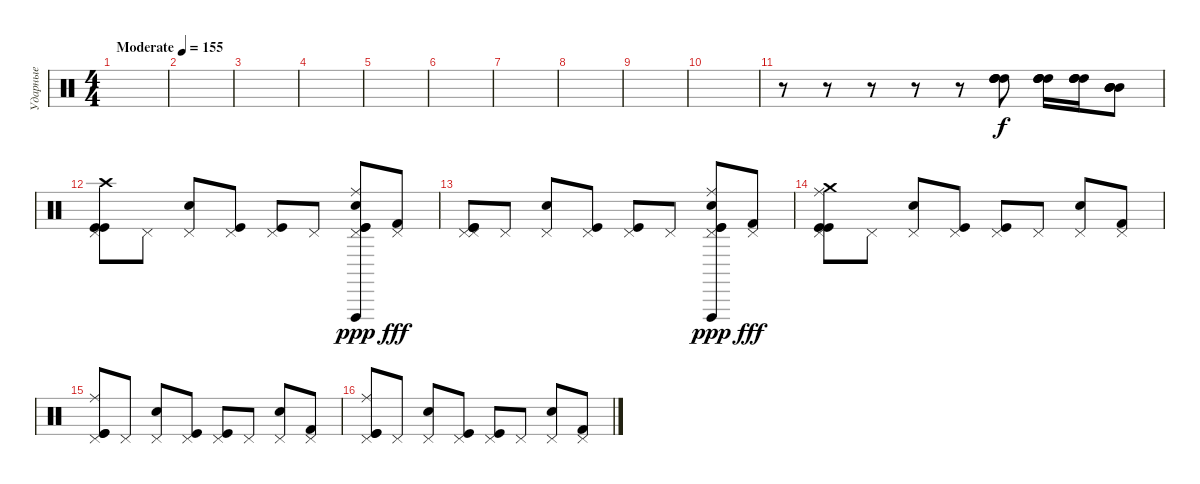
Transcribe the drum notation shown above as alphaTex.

\track ("Ударные" "Ударные") {instrument percussion}
\staff
\articulation defaults
\ts (4 4)
\tempo (155 "Moderate")
\clef neutral
\ks c
|
|
|
|
|
|
|
|
|
|
r.8 r.8 r.8 r.8 r.8 ("High Tom (hit)" "High Tom (hit)" "High Tom (hit)" "High Tom (hit)").8 ("High Tom (hit)" "High Tom (hit)" "High Tom (hit)" "High Tom (hit)").16 ("High Tom (hit)" "High Tom (hit)" "High Tom (hit)" "High Tom (hit)").16 ("Mid Tom (hit)" "Mid Tom (hit)" "Mid Tom (hit)" "Mid Tom (hit)").8 |
("Kick (hit)" "Pedal Hi-Hat (hit)" "Kick (hit)" "Crash high (hit)").8 "Pedal Hi-Hat (hit)".8 ("Pedal Hi-Hat (hit)" "Snare (hit) 2").8 ("Pedal Hi-Hat (hit)" "Kick (hit)").8 ("Pedal Hi-Hat (hit)" "Kick (hit)").8 "Pedal Hi-Hat (hit)".8 ("Kick (hit)" "Snare (hit) 2" "Pedal Hi-Hat (hit)" "Ride (middle)" "Vibraslap (hit)" "Kick (hit)").8{dy ppp} ("Kick (hit) 2" "Pedal Hi-Hat (hit)").8{dy fff} |
("Kick (hit)" "Pedal Hi-Hat (hit)" "Kick (hit)" "Pedal Hi-Hat (hit)").8 "Pedal Hi-Hat (hit)".8 ("Pedal Hi-Hat (hit)" "Snare (hit) 2").8 ("Pedal Hi-Hat (hit)" "Kick (hit)").8 ("Pedal Hi-Hat (hit)" "Kick (hit)").8 "Pedal Hi-Hat (hit)".8 ("Kick (hit)" "Snare (hit) 2" "Pedal Hi-Hat (hit)" "Ride (middle)" "Vibraslap (hit)" "Kick (hit)").8{dy ppp} ("Kick (hit) 2" "Pedal Hi-Hat (hit)").8{dy fff} |
("Kick (hit)" "Pedal Hi-Hat (hit)" "Kick (hit)" "Ride (middle)" "Crash medium (hit)").8 "Pedal Hi-Hat (hit)".8 ("Pedal Hi-Hat (hit)" "Snare (hit) 2").8 ("Pedal Hi-Hat (hit)" "Kick (hit)").8 ("Pedal Hi-Hat (hit)" "Kick (hit)").8 "Pedal Hi-Hat (hit)".8 ("Snare (hit) 2" "Pedal Hi-Hat (hit)").8 ("Kick (hit) 2" "Pedal Hi-Hat (hit)").8 |
("Kick (hit)" "Pedal Hi-Hat (hit)" "Kick (hit)" "Ride (middle)").8 "Pedal Hi-Hat (hit)".8 ("Pedal Hi-Hat (hit)" "Snare (hit) 2").8 ("Pedal Hi-Hat (hit)" "Kick (hit)").8 ("Pedal Hi-Hat (hit)" "Kick (hit)").8 "Pedal Hi-Hat (hit)".8 ("Snare (hit) 2" "Pedal Hi-Hat (hit)").8 ("Kick (hit) 2" "Pedal Hi-Hat (hit)").8 |
("Kick (hit)" "Pedal Hi-Hat (hit)" "Kick (hit)" "Ride (middle)").8 "Pedal Hi-Hat (hit)".8 ("Pedal Hi-Hat (hit)" "Snare (hit) 2").8 ("Pedal Hi-Hat (hit)" "Kick (hit)").8 ("Pedal Hi-Hat (hit)" "Kick (hit)").8 "Pedal Hi-Hat (hit)".8 ("Snare (hit) 2" "Pedal Hi-Hat (hit)").8 ("Kick (hit) 2" "Pedal Hi-Hat (hit)").8
